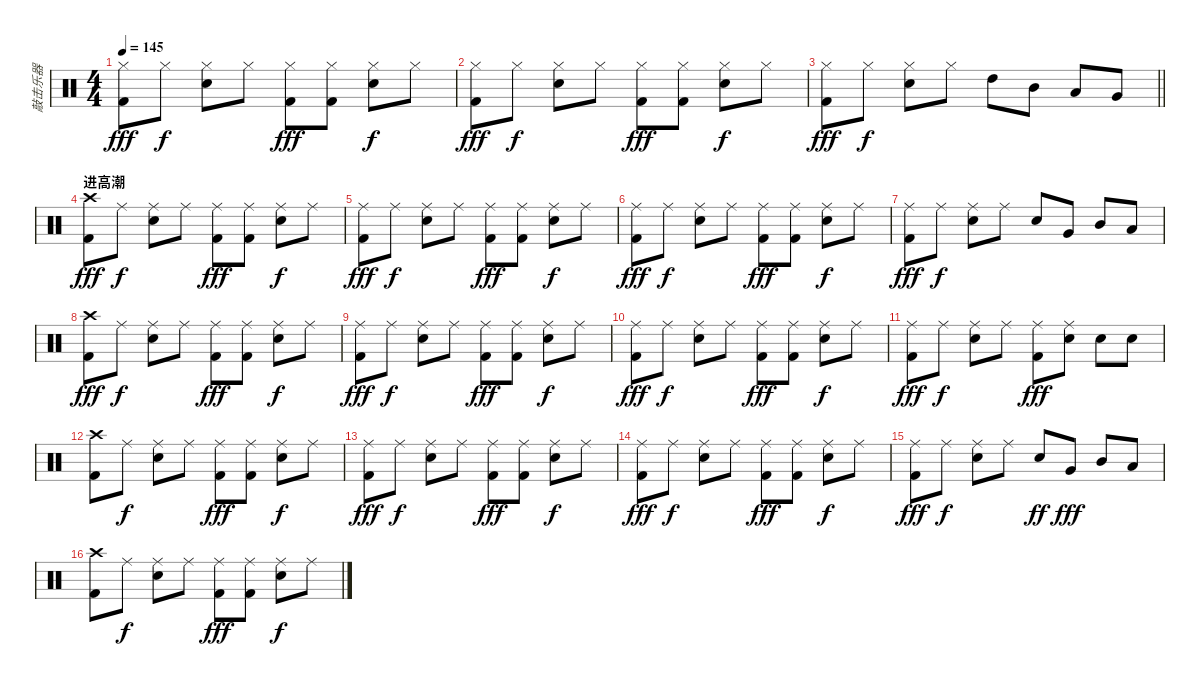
\track ("敲击乐器" "敲击乐器") {instrument percussion}
\staff {score}
\articulation defaults
\ts (4 4)
\tempo 145
\clef neutral
\ks c
("Hi-Hat (closed)" "Kick (hit) 2").8{dy fff} "Hi-Hat (closed)".8{dy f} ("Hi-Hat (closed)" "Electric Snare (hit)").8 "Hi-Hat (closed)".8 ("Hi-Hat (closed)" "Kick (hit) 2").8{dy fff} ("Hi-Hat (closed)" "Kick (hit) 2").8 ("Hi-Hat (closed)" "Electric Snare (hit)").8{dy f} "Hi-Hat (closed)".8 |
("Hi-Hat (closed)" "Kick (hit) 2").8{dy fff} "Hi-Hat (closed)".8{dy f} ("Hi-Hat (closed)" "Electric Snare (hit)").8 "Hi-Hat (closed)".8 ("Hi-Hat (closed)" "Kick (hit) 2").8{dy fff} ("Hi-Hat (closed)" "Kick (hit) 2").8 ("Hi-Hat (closed)" "Electric Snare (hit)").8{dy f} "Hi-Hat (closed)".8 |
\barLineRight lightlight
("Hi-Hat (closed)" "Kick (hit) 2").8{dy fff} "Hi-Hat (closed)".8{dy f} ("Hi-Hat (closed)" "Electric Snare (hit)").8 "Hi-Hat (closed)".8 "High Tom (hit)".8 "Mid Tom (hit)".8 "Low Tom (hit)".8 "Very Low Tom (hit)".8 |
\section ("" "进高潮")
("Crash high (hit)" "Kick (hit) 2").8{dy fff} "Ride (middle)".8{dy f} ("Ride (middle)" "Electric Snare (hit)").8 "Ride (middle)".8 ("Ride (middle)" "Kick (hit) 2").8{dy fff} ("Ride (middle)" "Kick (hit) 2").8 ("Ride (middle)" "Electric Snare (hit)").8{dy f} "Ride (middle)".8 |
("Ride (middle)" "Kick (hit) 2").8{dy fff} "Ride (middle)".8{dy f} ("Ride (middle)" "Electric Snare (hit)").8 "Ride (middle)".8 ("Ride (middle)" "Kick (hit) 2").8{dy fff} ("Ride (middle)" "Kick (hit) 2").8 ("Ride (middle)" "Electric Snare (hit)").8{dy f} "Ride (middle)".8 |
("Ride (middle)" "Kick (hit) 2").8{dy fff} "Ride (middle)".8{dy f} ("Ride (middle)" "Electric Snare (hit)").8 "Ride (middle)".8 ("Ride (middle)" "Kick (hit) 2").8{dy fff} ("Ride (middle)" "Kick (hit) 2").8 ("Ride (middle)" "Electric Snare (hit)").8{dy f} "Ride (middle)".8 |
("Ride (middle)" "Kick (hit) 2").8{dy fff} "Ride (middle)".8{dy f} ("Ride (middle)" "Electric Snare (hit)").8 "Ride (middle)".8 "Electric Snare (hit)".8 "Very Low Tom (hit)".8 "Mid Tom (hit)".8 "Low Tom (hit)".8 |
("Crash high (hit)" "Kick (hit) 2").8{dy fff} "Ride (middle)".8{dy f} ("Ride (middle)" "Electric Snare (hit)").8 "Ride (middle)".8 ("Ride (middle)" "Kick (hit) 2").8{dy fff} ("Ride (middle)" "Kick (hit) 2").8 ("Ride (middle)" "Electric Snare (hit)").8{dy f} "Ride (middle)".8 |
("Ride (middle)" "Kick (hit) 2").8{dy fff} "Ride (middle)".8{dy f} ("Ride (middle)" "Electric Snare (hit)").8 "Ride (middle)".8 ("Ride (middle)" "Kick (hit) 2").8{dy fff} ("Ride (middle)" "Kick (hit) 2").8 ("Ride (middle)" "Electric Snare (hit)").8{dy f} "Ride (middle)".8 |
("Ride (middle)" "Kick (hit) 2").8{dy fff} "Ride (middle)".8{dy f} ("Ride (middle)" "Electric Snare (hit)").8 "Ride (middle)".8 ("Ride (middle)" "Kick (hit) 2").8{dy fff} ("Ride (middle)" "Kick (hit) 2").8 ("Ride (middle)" "Electric Snare (hit)").8{dy f} "Ride (middle)".8 |
("Ride (middle)" "Kick (hit) 2").8{dy fff} "Ride (middle)".8{dy f} ("Ride (middle)" "Electric Snare (hit)").8 "Ride (middle)".8 ("Ride (middle)" "Kick (hit) 2").8{dy fff} ("Ride (middle)" "Electric Snare (hit)").8 "Electric Snare (hit)".8 "Electric Snare (hit)".8 |
("Crash high (hit)" "Kick (hit) 2").8 "Ride (middle)".8{dy f} ("Ride (middle)" "Electric Snare (hit)").8 "Ride (middle)".8 ("Ride (middle)" "Kick (hit) 2").8{dy fff} ("Ride (middle)" "Kick (hit) 2").8 ("Ride (middle)" "Electric Snare (hit)").8{dy f} "Ride (middle)".8 |
("Ride (middle)" "Kick (hit) 2").8{dy fff} "Ride (middle)".8{dy f} ("Ride (middle)" "Electric Snare (hit)").8 "Ride (middle)".8 ("Ride (middle)" "Kick (hit) 2").8{dy fff} ("Ride (middle)" "Kick (hit) 2").8 ("Ride (middle)" "Electric Snare (hit)").8{dy f} "Ride (middle)".8 |
("Ride (middle)" "Kick (hit) 2").8{dy fff} "Ride (middle)".8{dy f} ("Ride (middle)" "Electric Snare (hit)").8 "Ride (middle)".8 ("Ride (middle)" "Kick (hit) 2").8{dy fff} ("Ride (middle)" "Kick (hit) 2").8 ("Ride (middle)" "Electric Snare (hit)").8{dy f} "Ride (middle)".8 |
("Ride (middle)" "Kick (hit) 2").8{dy fff} "Ride (middle)".8{dy f} ("Ride (middle)" "Electric Snare (hit)").8 "Ride (middle)".8 "Electric Snare (hit)".8{dy ff} "Very Low Tom (hit)".8{dy fff} "Mid Tom (hit)".8 "Low Tom (hit)".8 |
("Crash high (hit)" "Kick (hit) 2").8 "Ride (middle)".8{dy f} ("Ride (middle)" "Electric Snare (hit)").8 "Ride (middle)".8 ("Ride (middle)" "Kick (hit) 2").8{dy fff} ("Ride (middle)" "Kick (hit) 2").8 ("Ride (middle)" "Electric Snare (hit)").8{dy f} "Ride (middle)".8
